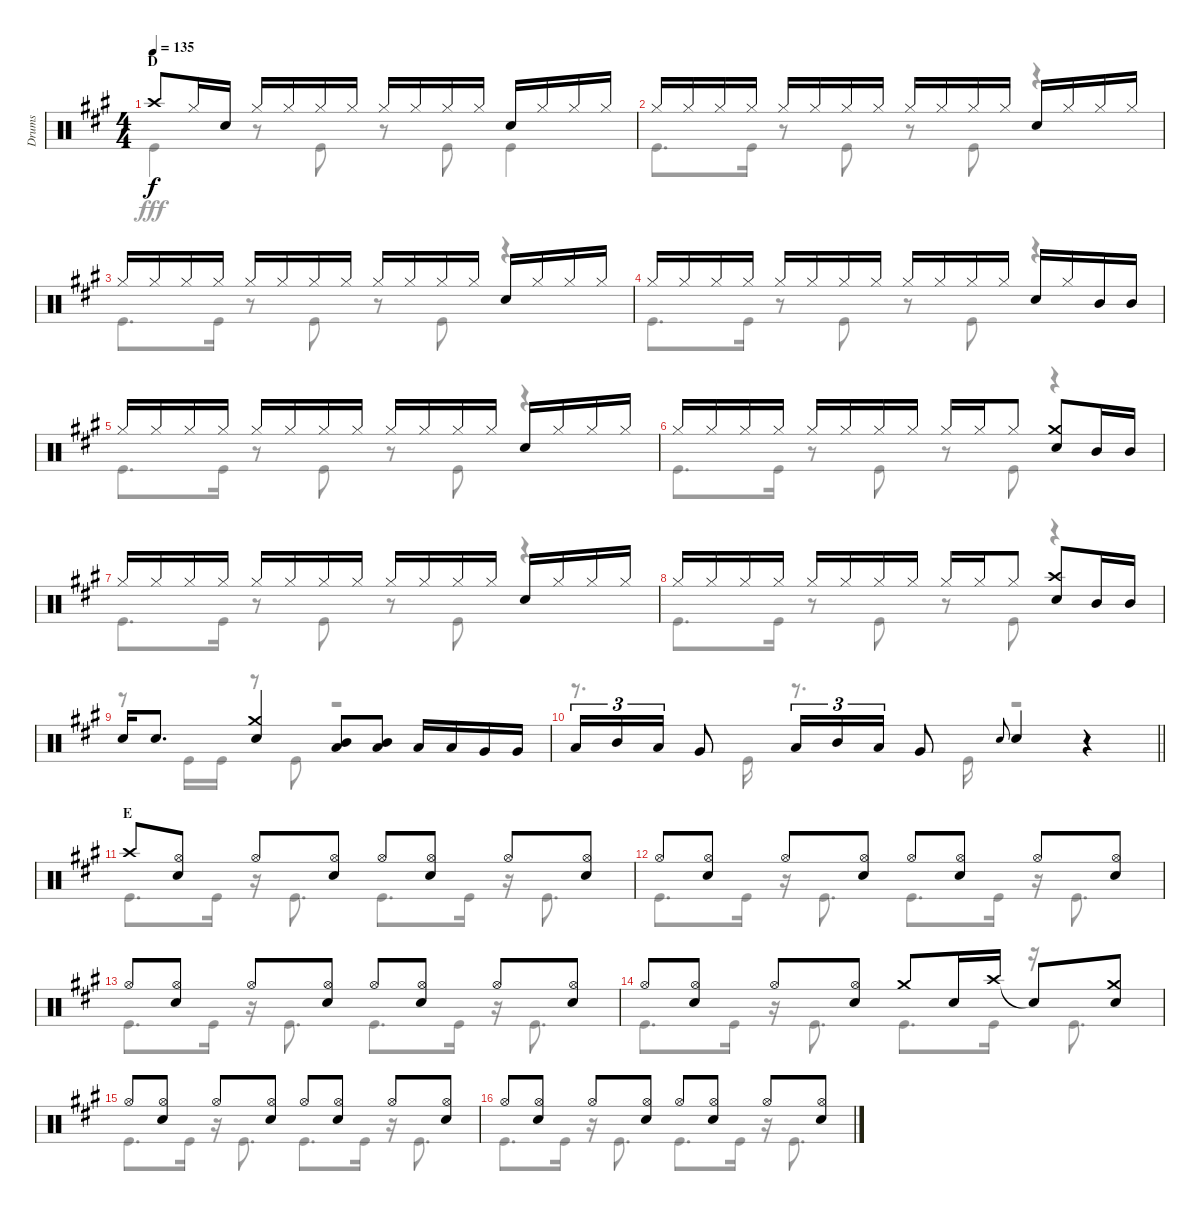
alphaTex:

\track ("Drums" "Drums") {instrument percussion}
\staff {score}
\articulation defaults
\voice
\ts (4 4)
\section ("" "D")
\tempo 135
\clef neutral
\ks a "Crash high (hit)".8{dy f} "Hi-Hat (closed)".16 "Snare (hit) 2".16 "Hi-Hat (closed)".16 "Hi-Hat (closed)".16 "Hi-Hat (closed)".16 "Hi-Hat (closed)".16 "Hi-Hat (closed)".16 "Hi-Hat (closed)".16 "Hi-Hat (closed)".16 "Hi-Hat (closed)".16 "Snare (hit) 2".16 "Hi-Hat (closed)".16 "Hi-Hat (closed)".16 "Hi-Hat (closed)".16
|
"Hi-Hat (closed)".16 "Hi-Hat (closed)".16 "Hi-Hat (closed)".16 "Hi-Hat (closed)".16 "Hi-Hat (closed)".16 "Hi-Hat (closed)".16 "Hi-Hat (closed)".16 "Hi-Hat (closed)".16 "Hi-Hat (closed)".16 "Hi-Hat (closed)".16 "Hi-Hat (closed)".16 "Hi-Hat (closed)".16 "Snare (hit) 2".16 "Hi-Hat (closed)".16 "Hi-Hat (closed)".16 "Hi-Hat (closed)".16 |
"Hi-Hat (closed)".16 "Hi-Hat (closed)".16 "Hi-Hat (closed)".16 "Hi-Hat (closed)".16 "Hi-Hat (closed)".16 "Hi-Hat (closed)".16 "Hi-Hat (closed)".16 "Hi-Hat (closed)".16 "Hi-Hat (closed)".16 "Hi-Hat (closed)".16 "Hi-Hat (closed)".16 "Hi-Hat (closed)".16 "Snare (hit) 2".16 "Hi-Hat (closed)".16 "Hi-Hat (closed)".16 "Hi-Hat (closed)".16 |
"Hi-Hat (closed)".16 "Hi-Hat (closed)".16 "Hi-Hat (closed)".16 "Hi-Hat (closed)".16 "Hi-Hat (closed)".16 "Hi-Hat (closed)".16 "Hi-Hat (closed)".16 "Hi-Hat (closed)".16 "Hi-Hat (closed)".16 "Hi-Hat (closed)".16 "Hi-Hat (closed)".16 "Hi-Hat (closed)".16 "Snare (hit) 2".16 "Hi-Hat (closed)".16 "Mid Tom (hit)".16 "Mid Tom (hit)".16 |
"Hi-Hat (closed)".16 "Hi-Hat (closed)".16 "Hi-Hat (closed)".16 "Hi-Hat (closed)".16 "Hi-Hat (closed)".16 "Hi-Hat (closed)".16 "Hi-Hat (closed)".16 "Hi-Hat (closed)".16 "Hi-Hat (closed)".16 "Hi-Hat (closed)".16 "Hi-Hat (closed)".16 "Hi-Hat (closed)".16 "Snare (hit) 2".16 "Hi-Hat (closed)".16 "Hi-Hat (closed)".16 "Hi-Hat (closed)".16 |
"Hi-Hat (closed)".16 "Hi-Hat (closed)".16 "Hi-Hat (closed)".16 "Hi-Hat (closed)".16 "Hi-Hat (closed)".16 "Hi-Hat (closed)".16 "Hi-Hat (closed)".16 "Hi-Hat (closed)".16 "Hi-Hat (closed)".16 "Hi-Hat (closed)".16 "Hi-Hat (closed)".8 ("Crash medium (hit)" "Snare (hit) 2").8 "Mid Tom (hit)".16 "Mid Tom (hit)".16 |
"Hi-Hat (closed)".16 "Hi-Hat (closed)".16 "Hi-Hat (closed)".16 "Hi-Hat (closed)".16 "Hi-Hat (closed)".16 "Hi-Hat (closed)".16 "Hi-Hat (closed)".16 "Hi-Hat (closed)".16 "Hi-Hat (closed)".16 "Hi-Hat (closed)".16 "Hi-Hat (closed)".16 "Hi-Hat (closed)".16 "Snare (hit) 2".16 "Hi-Hat (closed)".16 "Hi-Hat (closed)".16 "Hi-Hat (closed)".16 |
"Hi-Hat (closed)".16 "Hi-Hat (closed)".16 "Hi-Hat (closed)".16 "Hi-Hat (closed)".16 "Hi-Hat (closed)".16 "Hi-Hat (closed)".16 "Hi-Hat (closed)".16 "Hi-Hat (closed)".16 "Hi-Hat (closed)".16 "Hi-Hat (closed)".16 "Hi-Hat (closed)".8 ("Crash high (hit)" "Snare (hit) 2").8 "Mid Tom (hit)".16 "Mid Tom (hit)".16 |
"Snare (hit) 2".16 "Snare (hit) 2".8{d} ("Crash medium (hit)" "Snare (hit) 2").4 ("Mid Tom (hit)" "Low Tom (hit)").8 ("Mid Tom (hit)" "Low Tom (hit)").8 "Low Tom (hit)".16 "Low Tom (hit)".16 "Very Low Tom (hit)".16 "Very Low Tom (hit)".16 |
\barLineRight lightlight "Low Tom (hit)".16{tu (3 2)} "Mid Tom (hit)".16{tu (3 2)} "Low Tom (hit)".16{tu (3 2)} "Very Low Tom (hit)".8 "Low Tom (hit)".16{tu (3 2)} "Mid Tom (hit)".16{tu (3 2)} "Low Tom (hit)".16{tu (3 2)} "Very Low Tom (hit)".8 "Snare (hit) 2".8{gr onbeat} "Snare (hit) 2".4
r.4 |
\section ("" "E")
"Crash high (hit)".8 ("Hi-Hat (open)" "Snare (hit) 2").8 "Hi-Hat (open)".8 ("Hi-Hat (open)" "Snare (hit) 2").8 "Hi-Hat (open)".8 ("Hi-Hat (open)" "Snare (hit) 2").8 "Hi-Hat (open)".8 ("Hi-Hat (open)" "Snare (hit) 2").8 |
"Hi-Hat (open)".8 ("Hi-Hat (open)" "Snare (hit) 2").8 "Hi-Hat (open)".8 ("Hi-Hat (open)" "Snare (hit) 2").8 "Hi-Hat (open)".8 ("Hi-Hat (open)" "Snare (hit) 2").8 "Hi-Hat (open)".8 ("Hi-Hat (open)" "Snare (hit) 2").8 |
"Hi-Hat (open)".8 ("Hi-Hat (open)" "Snare (hit) 2").8 "Hi-Hat (open)".8 ("Hi-Hat (open)" "Snare (hit) 2").8 "Hi-Hat (open)".8 ("Hi-Hat (open)" "Snare (hit) 2").8 "Hi-Hat (open)".8 ("Hi-Hat (open)" "Snare (hit) 2").8 |
"Hi-Hat (open)".8 ("Hi-Hat (open)" "Snare (hit) 2").8 "Hi-Hat (open)".8 ("Hi-Hat (open)" "Snare (hit) 2").8 "Crash medium (hit)".8 "Snare (hit) 2".16 "Crash high (hit)".16 "Snare (hit)"{t}.8 ("Crash medium (hit)" "Snare (hit) 2").8 |
"Hi-Hat (open)".8 ("Hi-Hat (open)" "Snare (hit) 2").8 "Hi-Hat (open)".8 ("Hi-Hat (open)" "Snare (hit) 2").8 "Hi-Hat (open)".8 ("Hi-Hat (open)" "Snare (hit) 2").8 "Hi-Hat (open)".8 ("Hi-Hat (open)" "Snare (hit) 2").8 |
"Hi-Hat (open)".8 ("Hi-Hat (open)" "Snare (hit) 2").8 "Hi-Hat (open)".8 ("Hi-Hat (open)" "Snare (hit) 2").8 "Hi-Hat (open)".8 ("Hi-Hat (open)" "Snare (hit) 2").8 "Hi-Hat (open)".8 ("Hi-Hat (open)" "Snare (hit) 2").8
\voice
\clef neutral
\ottava regular
\simile none
\ks a "Kick (hit)".4{dy fff}
r.8 "Kick (hit)".8 r.8 "Kick (hit)".8 "Kick (hit)".4 |
"Kick (hit)".8{d} "Kick (hit)".16 r.8 "Kick (hit)".8 r.8 "Kick (hit)".8 r.4 |
"Kick (hit)".8{d} "Kick (hit)".16 r.8 "Kick (hit)".8 r.8 "Kick (hit)".8 r.4 |
"Kick (hit)".8{d} "Kick (hit)".16 r.8 "Kick (hit)".8 r.8 "Kick (hit)".8 r.4 |
"Kick (hit)".8{d} "Kick (hit)".16 r.8 "Kick (hit)".8 r.8 "Kick (hit)".8 r.4 |
"Kick (hit)".8{d} "Kick (hit)".16 r.8 "Kick (hit)".8 r.8 "Kick (hit)".8 r.4 |
"Kick (hit)".8{d} "Kick (hit)".16 r.8 "Kick (hit)".8 r.8 "Kick (hit)".8 r.4 |
"Kick (hit)".8{d} "Kick (hit)".16 r.8 "Kick (hit)".8 r.8 "Kick (hit)".8 r.4 |
r.8 "Kick (hit)".16 "Kick (hit)".16 r.8 "Kick (hit)".8 r.2 |
\barLineRight lightlight
r.8{d} "Kick (hit)".16 r.8{d} "Kick (hit)".16 r.2 |
"Kick (hit)".8{d} "Kick (hit)".16 r.16 "Kick (hit)".8{d} "Kick (hit)".8{d} "Kick (hit)".16 r.16 "Kick (hit)".8{d} |
"Kick (hit)".8{d} "Kick (hit)".16 r.16 "Kick (hit)".8{d} "Kick (hit)".8{d} "Kick (hit)".16 r.16 "Kick (hit)".8{d} |
"Kick (hit)".8{d} "Kick (hit)".16 r.16 "Kick (hit)".8{d} "Kick (hit)".8{d} "Kick (hit)".16 r.16 "Kick (hit)".8{d} |
"Kick (hit)".8{d} "Kick (hit)".16 r.16 "Kick (hit)".8{d} "Kick (hit)".8{d} "Kick (hit)".16 r.16 "Kick (hit)".8{d} |
"Kick (hit)".8{d} "Kick (hit)".16 r.16 "Kick (hit)".8{d} "Kick (hit)".8{d} "Kick (hit)".16 r.16 "Kick (hit)".8{d} |
"Kick (hit)".8{d} "Kick (hit)".16 r.16 "Kick (hit)".8{d} "Kick (hit)".8{d} "Kick (hit)".16 r.16 "Kick (hit)".8{d}
